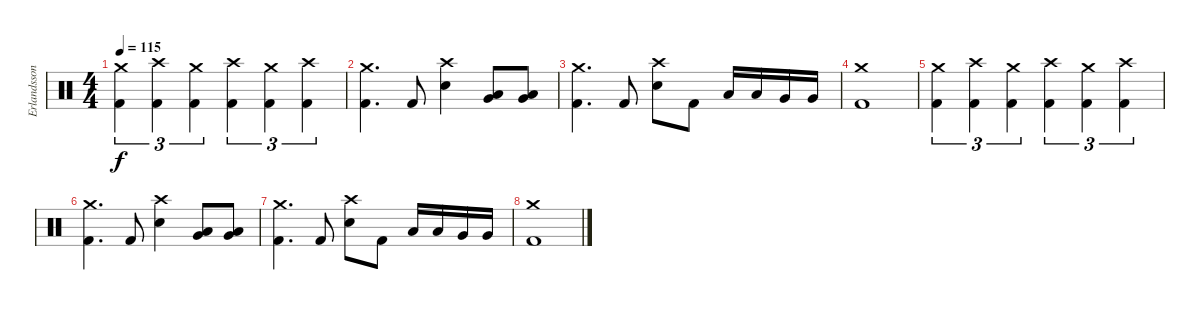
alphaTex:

\track ("Erlandsson" "Erlandsson") {instrument percussion}
\staff {score}
\articulation defaults
\ts (4 4)
\tempo 115
\clef neutral
\ks c
("Crash medium (hit)" "Kick (hit) 2").4{tu (3 2) dy f} ("Crash high (hit)" "Kick (hit) 2").4{tu (3 2)} ("Crash medium (hit)" "Kick (hit) 2").4{tu (3 2)} ("Crash high (hit)" "Kick (hit) 2").4{tu (3 2)} ("Crash medium (hit)" "Kick (hit) 2").4{tu (3 2)} ("Crash high (hit)" "Kick (hit) 2").4{tu (3 2)} |
("Crash medium (hit)" "Kick (hit) 2").4{d} "Kick (hit) 2".8 ("Crash high (hit)" "Electric Snare (hit)").4 ("Very Low Tom (hit)" "Low Floor Tom (hit)").8 ("Very Low Tom (hit)" "Low Floor Tom (hit)").8 |
("Crash medium (hit)" "Kick (hit) 2").4{d} "Kick (hit) 2".8 ("Crash high (hit)" "Electric Snare (hit)").8 "Kick (hit) 2".8 "Low Tom (hit)".16 "Low Tom (hit)".16 "Very Low Tom (hit)".16 "Very Low Tom (hit)".16 |
("Crash medium (hit)" "Kick (hit) 2").1 |
("Crash medium (hit)" "Kick (hit) 2").4{tu (3 2)} ("Crash high (hit)" "Kick (hit) 2").4{tu (3 2)} ("Crash medium (hit)" "Kick (hit) 2").4{tu (3 2)} ("Crash high (hit)" "Kick (hit) 2").4{tu (3 2)} ("Crash medium (hit)" "Kick (hit) 2").4{tu (3 2)} ("Crash high (hit)" "Kick (hit) 2").4{tu (3 2)} |
("Crash medium (hit)" "Kick (hit) 2").4{d} "Kick (hit) 2".8 ("Crash high (hit)" "Electric Snare (hit)").4 ("Very Low Tom (hit)" "Low Floor Tom (hit)").8 ("Very Low Tom (hit)" "Low Floor Tom (hit)").8 |
("Crash medium (hit)" "Kick (hit) 2").4{d} "Kick (hit) 2".8 ("Crash high (hit)" "Electric Snare (hit)").8 "Kick (hit) 2".8 "Low Tom (hit)".16 "Low Tom (hit)".16 "Very Low Tom (hit)".16 "Very Low Tom (hit)".16 |
("Crash medium (hit)" "Kick (hit) 2").1
